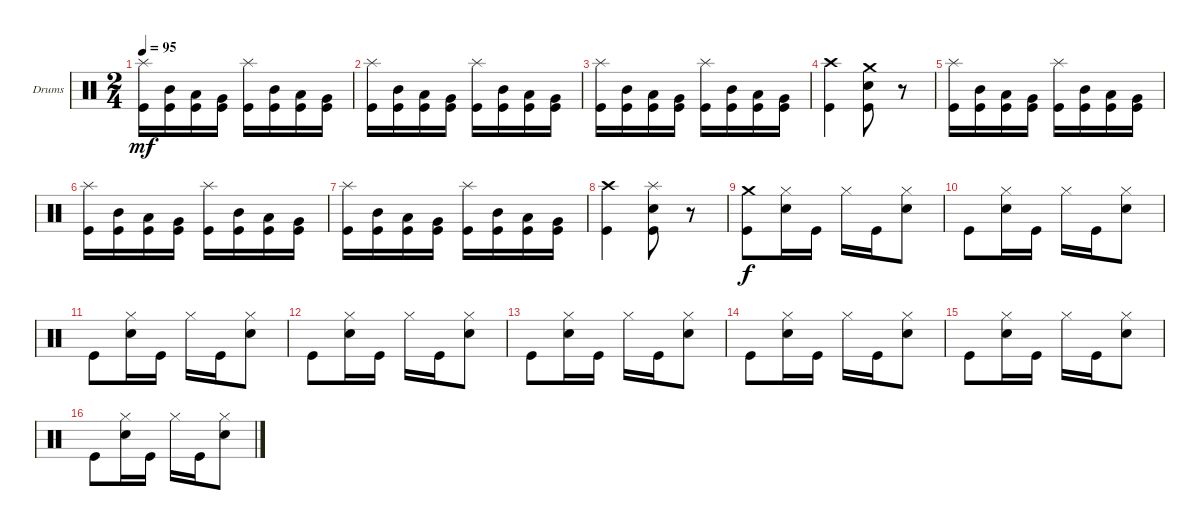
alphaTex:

\bracketExtendMode groupsimilarinstruments
\firstSystemTrackNameOrientation horizontal
\otherSystemsTrackNameOrientation horizontal
\track ("Drumkit" "Drums") {instrument percussion}
\staff {score}
\articulation defaults
\ts (2 4)
\tempo 95
\clef neutral
\ks c
("Splash (hit)" "Kick (hit)").16{dy mf} ("Kick (hit)" "Mid Tom (hit)").16 ("Kick (hit)" "Low Tom (hit)").16 ("Kick (hit)" "Very Low Tom (hit)").16 ("Splash (hit)" "Kick (hit)").16 ("Kick (hit)" "Mid Tom (hit)").16 ("Kick (hit)" "Low Tom (hit)").16 ("Kick (hit)" "Very Low Tom (hit)").16 |
("Splash (hit)" "Kick (hit)").16 ("Kick (hit)" "Mid Tom (hit)").16 ("Kick (hit)" "Low Tom (hit)").16 ("Kick (hit)" "Very Low Tom (hit)").16 ("Splash (hit)" "Kick (hit)").16 ("Kick (hit)" "Mid Tom (hit)").16 ("Kick (hit)" "Low Tom (hit)").16 ("Kick (hit)" "Very Low Tom (hit)").16 |
("Splash (hit)" "Kick (hit)").16 ("Kick (hit)" "Mid Tom (hit)").16 ("Kick (hit)" "Low Tom (hit)").16 ("Kick (hit)" "Very Low Tom (hit)").16 ("Splash (hit)" "Kick (hit)").16 ("Kick (hit)" "Mid Tom (hit)").16 ("Kick (hit)" "Low Tom (hit)").16 ("Kick (hit)" "Very Low Tom (hit)").16 |
("Kick (hit)" "Crash high (hit)").4 ("Kick (hit)" "Snare (hit) 2" "Crash medium (hit)").8 r.8 |
("Splash (hit)" "Kick (hit)").16 ("Kick (hit)" "Mid Tom (hit)").16 ("Kick (hit)" "Low Tom (hit)").16 ("Kick (hit)" "Very Low Tom (hit)").16 ("Splash (hit)" "Kick (hit)").16 ("Kick (hit)" "Mid Tom (hit)").16 ("Kick (hit)" "Low Tom (hit)").16 ("Kick (hit)" "Very Low Tom (hit)").16 |
("Splash (hit)" "Kick (hit)").16 ("Kick (hit)" "Mid Tom (hit)").16 ("Kick (hit)" "Low Tom (hit)").16 ("Kick (hit)" "Very Low Tom (hit)").16 ("Splash (hit)" "Kick (hit)").16 ("Kick (hit)" "Mid Tom (hit)").16 ("Kick (hit)" "Low Tom (hit)").16 ("Kick (hit)" "Very Low Tom (hit)").16 |
("Splash (hit)" "Kick (hit)").16 ("Kick (hit)" "Mid Tom (hit)").16 ("Kick (hit)" "Low Tom (hit)").16 ("Kick (hit)" "Very Low Tom (hit)").16 ("Splash (hit)" "Kick (hit)").16 ("Kick (hit)" "Mid Tom (hit)").16 ("Kick (hit)" "Low Tom (hit)").16 ("Kick (hit)" "Very Low Tom (hit)").16 |
("Kick (hit)" "Crash high (hit)").4 ("Kick (hit)" "Snare (hit) 2" "Splash (hit)").8 r.8 |
\beaming (8 2 2)
("Kick (hit)" "Crash medium (hit)").8{dy f} ("Hi-Hat (closed)" "Snare (hit) 2").16 "Kick (hit)".16 "Hi-Hat (closed)".16 "Kick (hit)".16 ("Hi-Hat (closed)" "Snare (hit) 2").8 |
"Kick (hit)".8 ("Hi-Hat (closed)" "Snare (hit) 2").16 "Kick (hit)".16 "Hi-Hat (closed)".16 "Kick (hit)".16 ("Hi-Hat (closed)" "Snare (hit) 2").8 |
"Kick (hit)".8 ("Hi-Hat (closed)" "Snare (hit) 2").16 "Kick (hit)".16 "Hi-Hat (closed)".16 "Kick (hit)".16 ("Hi-Hat (closed)" "Snare (hit) 2").8 |
"Kick (hit)".8 ("Hi-Hat (closed)" "Snare (hit) 2").16 "Kick (hit)".16 "Hi-Hat (closed)".16 "Kick (hit)".16 ("Hi-Hat (closed)" "Snare (hit) 2").8 |
"Kick (hit)".8 ("Hi-Hat (closed)" "Snare (hit) 2").16 "Kick (hit)".16 "Hi-Hat (closed)".16 "Kick (hit)".16 ("Hi-Hat (closed)" "Snare (hit) 2").8 |
"Kick (hit)".8 ("Hi-Hat (closed)" "Snare (hit) 2").16 "Kick (hit)".16 "Hi-Hat (closed)".16 "Kick (hit)".16 ("Hi-Hat (closed)" "Snare (hit) 2").8 |
"Kick (hit)".8 ("Hi-Hat (closed)" "Snare (hit) 2").16 "Kick (hit)".16 "Hi-Hat (closed)".16 "Kick (hit)".16 ("Hi-Hat (closed)" "Snare (hit) 2").8 |
"Kick (hit)".8 ("Hi-Hat (closed)" "Snare (hit) 2").16 "Kick (hit)".16 "Hi-Hat (closed)".16 "Kick (hit)".16 ("Hi-Hat (closed)" "Snare (hit) 2").8
